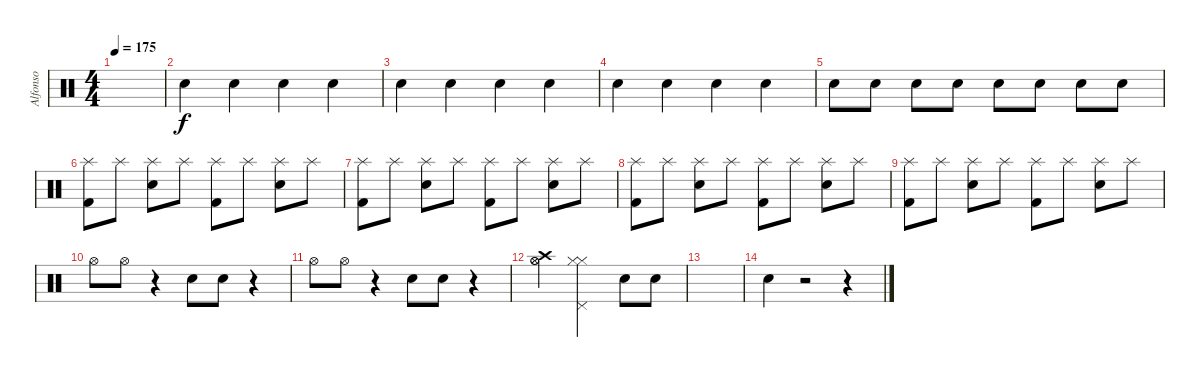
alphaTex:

\track ("Alfonso" "Alfonso") {instrument percussion}
\staff {score}
\articulation defaults
\ts (4 4)
\tempo 175
\clef neutral
\ks c
|
"Electric Snare (hit)".4 "Electric Snare (hit)".4 "Electric Snare (hit)".4 "Electric Snare (hit)".4 |
"Electric Snare (hit)".4 "Electric Snare (hit)".4 "Electric Snare (hit)".4 "Electric Snare (hit)".4 |
"Electric Snare (hit)".4 "Electric Snare (hit)".4 "Electric Snare (hit)".4 "Electric Snare (hit)".4 |
"Electric Snare (hit)".8 "Electric Snare (hit)".8 "Electric Snare (hit)".8 "Electric Snare (hit)".8 "Electric Snare (hit)".8 "Electric Snare (hit)".8 "Electric Snare (hit)".8 "Electric Snare (hit)".8 |
("Splash (hit)" "Kick (hit) 2").8 "Splash (hit)".8 ("Splash (hit)" "Electric Snare (hit)").8 "Splash (hit)".8 ("Splash (hit)" "Kick (hit) 2").8 "Splash (hit)".8 ("Splash (hit)" "Electric Snare (hit)").8 "Splash (hit)".8 |
("Splash (hit)" "Kick (hit) 2").8 "Splash (hit)".8 ("Splash (hit)" "Electric Snare (hit)").8 "Splash (hit)".8 ("Splash (hit)" "Kick (hit) 2").8 "Splash (hit)".8 ("Splash (hit)" "Electric Snare (hit)").8 "Splash (hit)".8 |
("Splash (hit)" "Kick (hit) 2").8 "Splash (hit)".8 ("Splash (hit)" "Electric Snare (hit)").8 "Splash (hit)".8 ("Splash (hit)" "Kick (hit) 2").8 "Splash (hit)".8 ("Splash (hit)" "Electric Snare (hit)").8 "Splash (hit)".8 |
("Splash (hit)" "Kick (hit) 2").8 "Splash (hit)".8 ("Splash (hit)" "Electric Snare (hit)").8 "Splash (hit)".8 ("Splash (hit)" "Kick (hit) 2").8 "Splash (hit)".8 ("Splash (hit)" "Electric Snare (hit)").8 "Splash (hit)".8 |
"Hi-Hat (open)".8 "Hi-Hat (open)".8 r.4 "Electric Snare (hit)".8 "Electric Snare (hit)".8 r.4 |
"Hi-Hat (open)".8 "Hi-Hat (open)".8 r.4 "Electric Snare (hit)".8 "Electric Snare (hit)".8 r.4 |
("Hi-Hat (open)" "Crash high (hit)" "Hi-Hat (open)").4 ("Hi-Hat (closed)" "Pedal Hi-Hat (hit)" "Hi-Hat (closed)").2 "Electric Snare (hit)".8 "Electric Snare (hit)".8 |
|
"Electric Snare (hit)".4 r.2 r.4
